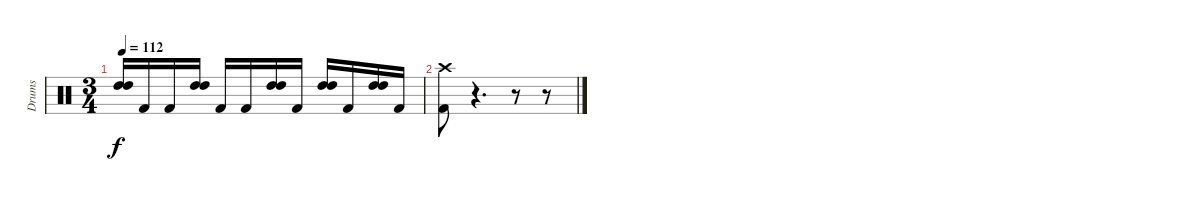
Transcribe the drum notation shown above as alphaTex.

\track ("Drums" "Drums") {instrument percussion}
\staff {score}
\articulation defaults
\ts (3 4)
\tempo 112
\clef neutral
\ks c
("High Tom (hit)" "High Tom (hit)").16{dy f} "Kick (hit) 2".16 "Kick (hit) 2".16 ("High Tom (hit)" "High Tom (hit)").16 "Kick (hit) 2".16 "Kick (hit) 2".16 ("High Tom (hit)" "High Tom (hit)").16 "Kick (hit) 2".16 ("High Tom (hit)" "High Tom (hit)").16 "Kick (hit) 2".16 ("High Tom (hit)" "High Tom (hit)").16 "Kick (hit) 2".16 |
("Crash high (hit)" "Kick (hit) 2").8 r.4{d} r.8 r.8
